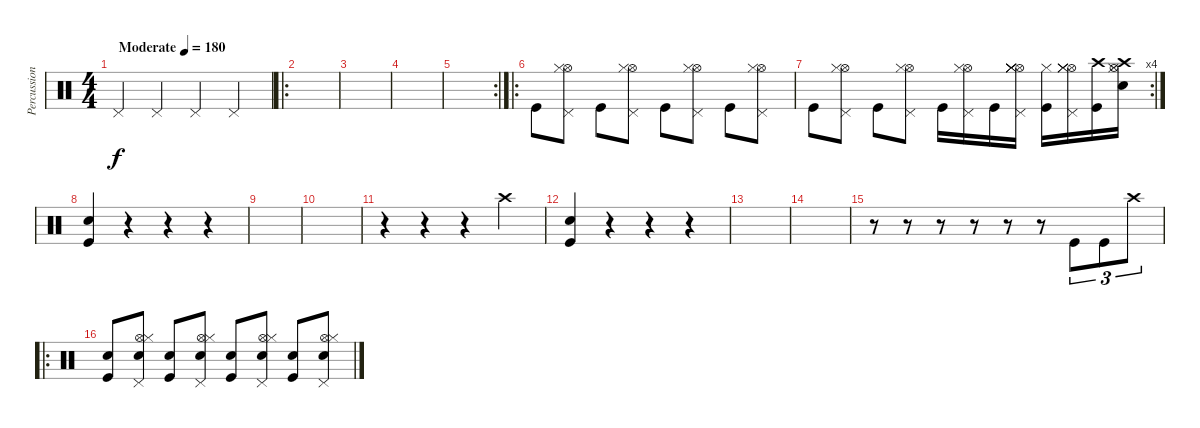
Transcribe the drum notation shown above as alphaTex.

\track ("Percussions" "Percussion") {instrument percussion}
\staff {score}
\articulation defaults
\ts (4 4)
\tempo (180 "Moderate")
\clef neutral
\ks c "Pedal Hi-Hat (hit)".4{dy f} "Pedal Hi-Hat (hit)".4 "Pedal Hi-Hat (hit)".4 "Pedal Hi-Hat (hit)".4
|
\ro
|
|
|
\rc 2
|
\ro "Kick (hit)".8
("Hi-Hat (open)" "Hi-Hat (closed)" "Pedal Hi-Hat (hit)").8 "Kick (hit)".8 ("Hi-Hat (open)" "Hi-Hat (closed)" "Pedal Hi-Hat (hit)").8 "Kick (hit)".8 ("Hi-Hat (open)" "Hi-Hat (closed)" "Pedal Hi-Hat (hit)").8 "Kick (hit)".8 ("Hi-Hat (open)" "Hi-Hat (closed)" "Pedal Hi-Hat (hit)").8 |
\rc 4 "Kick (hit)".8
("Hi-Hat (open)" "Hi-Hat (closed)" "Pedal Hi-Hat (hit)").8 "Kick (hit)".8 ("Hi-Hat (open)" "Hi-Hat (closed)" "Pedal Hi-Hat (hit)").8 "Kick (hit)".16 ("Hi-Hat (open)" "Hi-Hat (closed)" "Pedal Hi-Hat (hit)").16 "Kick (hit)".16 ("Hi-Hat (open)" "Hi-Hat (closed)" "Pedal Hi-Hat (hit)" "Hi-Hat (closed)" "Hi-Hat (closed)" "Hi-Hat (closed)").16 ("Hi-Hat (closed)" "Kick (hit)").16 ("Hi-Hat (open)" "Hi-Hat (closed)" "Pedal Hi-Hat (hit)" "Hi-Hat (closed)" "Hi-Hat (closed)").16 ("Crash high (hit)" "Kick (hit)").16 ("Hi-Hat (open)" "Hi-Hat (closed)" "Snare (hit)" "Crash high (hit)").16 |
("Kick (hit)" "Snare (hit) 2").4 r.4 r.4 r.4 |
|
|
r.4 r.4 r.4 "Crash high (hit)".4 |
("Kick (hit)" "Snare (hit) 2").4 r.4 r.4 r.4 |
|
|
r.8 r.8 r.8 r.8 r.8 r.8 "Kick (hit)".8{tu (3 2)} "Kick (hit)".8{tu (3 2)} "Crash high (hit)".8{tu (3 2)} |
\ro
("Snare (hit) 2" "Kick (hit)").8 ("Electric Snare (hit)" "Hi-Hat (open)" "Hi-Hat (closed)" "Pedal Hi-Hat (hit)").8 ("Snare (hit) 2" "Kick (hit)").8 ("Electric Snare (hit)" "Hi-Hat (open)" "Hi-Hat (closed)" "Pedal Hi-Hat (hit)").8 ("Snare (hit) 2" "Kick (hit)").8 ("Electric Snare (hit)" "Hi-Hat (open)" "Hi-Hat (closed)" "Pedal Hi-Hat (hit)").8 ("Snare (hit) 2" "Kick (hit)").8 ("Electric Snare (hit)" "Hi-Hat (open)" "Hi-Hat (closed)" "Pedal Hi-Hat (hit)").8
